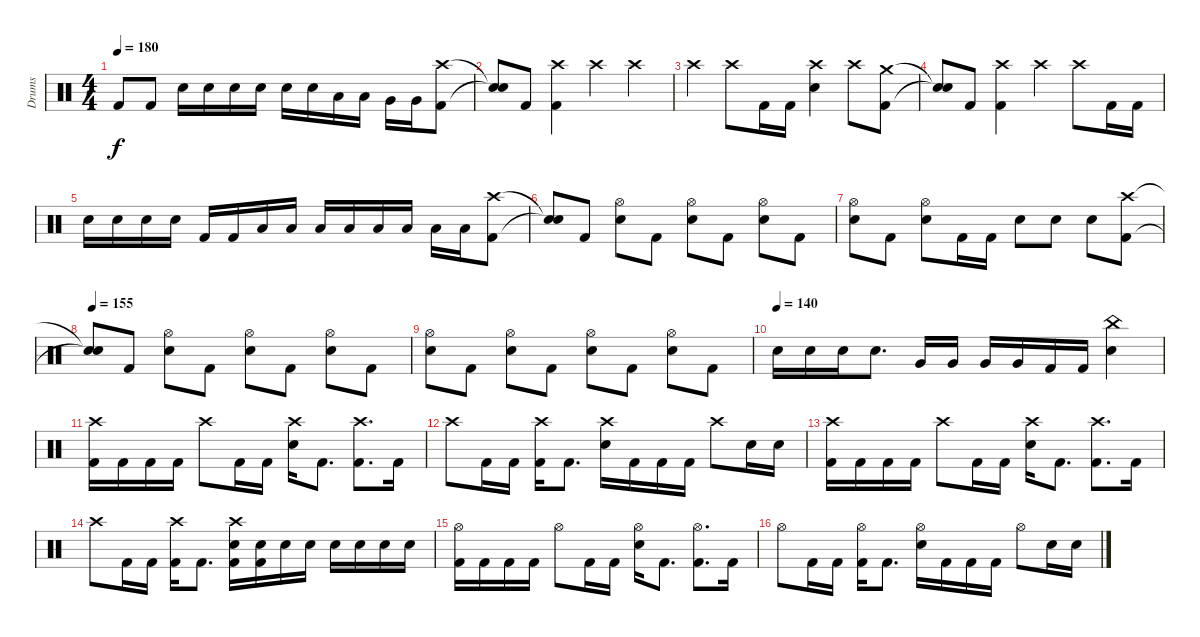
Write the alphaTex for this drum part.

\track ("Drums" "Drums") {instrument percussion}
\staff {score}
\articulation defaults
\ts (4 4)
\tempo 180
\clef neutral
\ks c "Kick (hit) 2".8{dy f} "Kick (hit) 2".8 "Electric Snare (hit)".16 "Electric Snare (hit)".16 "Electric Snare (hit)".16 "Electric Snare (hit)".16 "Electric Snare (hit)".16 "Electric Snare (hit)".16 "Low Tom (hit)".16 "Low Tom (hit)".16 "Very Low Tom (hit)".16 "Very Low Tom (hit)".16
("Crash high (hit)" "Kick (hit) 2").8 |
("Snare (hit)"{t} "Snare (hit)"{t}).8 "Kick (hit) 2".8 ("Crash high (hit)" "Kick (hit) 2").4 "Crash high (hit)".4 "Crash high (hit)".4 |
"Crash high (hit)".4 "Crash high (hit)".8 "Kick (hit) 2".16 "Kick (hit) 2".16 ("Crash high (hit)" "Electric Snare (hit)").4 "Crash high (hit)".8 ("Crash medium (hit)" "Kick (hit) 2").8 |
("Snare (hit)"{t} "Snare (hit)"{t}).8 "Kick (hit) 2".8 ("Crash high (hit)" "Kick (hit) 2").4 "Crash high (hit)".4 "Crash high (hit)".8 "Kick (hit) 2".16 "Kick (hit) 2".16 |
"Electric Snare (hit)".16 "Electric Snare (hit)".16 "Electric Snare (hit)".16 "Electric Snare (hit)".16 "Kick (hit) 2".16 "Kick (hit) 2".16 "Low Tom (hit)".16 "Low Tom (hit)".16 "Low Tom (hit)".16 "Low Tom (hit)".16 "Low Tom (hit)".16 "Low Tom (hit)".16 "Low Tom (hit)".16 "Low Tom (hit)".16 ("Crash high (hit)" "Kick (hit) 2").8 |
("Snare (hit)"{t} "Snare (hit)"{t}).8 "Kick (hit) 2".8 ("Hi-Hat (open)" "Electric Snare (hit)").8 "Kick (hit) 2".8 ("Hi-Hat (open)" "Electric Snare (hit)").8 "Kick (hit) 2".8 ("Hi-Hat (open)" "Electric Snare (hit)").8 "Kick (hit) 2".8 |
("Hi-Hat (open)" "Electric Snare (hit)").8 "Kick (hit) 2".8 ("Hi-Hat (open)" "Electric Snare (hit)").8 "Kick (hit) 2".16 "Kick (hit) 2".16 "Electric Snare (hit)".8 "Electric Snare (hit)".8 "Electric Snare (hit)".8 ("Crash high (hit)" "Kick (hit) 2").8 |
\tempo 155
("Snare (hit)"{t} "Snare (hit)"{t}).8 "Kick (hit) 2".8 ("Hi-Hat (open)" "Electric Snare (hit)").8 "Kick (hit) 2".8 ("Hi-Hat (open)" "Electric Snare (hit)").8 "Kick (hit) 2".8 ("Hi-Hat (open)" "Electric Snare (hit)").8 "Kick (hit) 2".8 |
("Hi-Hat (open)" "Electric Snare (hit)").8 "Kick (hit) 2".8 ("Hi-Hat (open)" "Electric Snare (hit)").8 "Kick (hit) 2".8 ("Hi-Hat (open)" "Electric Snare (hit)").8 "Kick (hit) 2".8 ("Hi-Hat (open)" "Electric Snare (hit)").8 "Kick (hit) 2".8 |
\tempo (140)
"Electric Snare (hit)".16 "Electric Snare (hit)".16 "Electric Snare (hit)".16 "Electric Snare (hit)".8{d} "Very Low Tom (hit)".16 "Very Low Tom (hit)".16 "Very Low Tom (hit)".16 "Very Low Tom (hit)".16 "Kick (hit) 2".16 "Kick (hit) 2".16 ("China (hit)" "Electric Snare (hit)").4 |
("Crash high (hit)" "Kick (hit) 2").16 "Kick (hit) 2".16 "Kick (hit) 2".16 "Kick (hit) 2".16 "Crash high (hit)".8 "Kick (hit) 2".16 "Kick (hit) 2".16 ("Crash high (hit)" "Electric Snare (hit)").16 "Kick (hit) 2".8{d} ("Crash high (hit)" "Kick (hit) 2").8{d} "Kick (hit) 2".16 |
"Crash high (hit)".8 "Kick (hit) 2".16 "Kick (hit) 2".16 ("Crash high (hit)" "Kick (hit) 2").16 "Kick (hit) 2".8{d} ("Crash high (hit)" "Electric Snare (hit)").16 "Kick (hit) 2".16 "Kick (hit) 2".16 "Kick (hit) 2".16 "Crash high (hit)".8 "Electric Snare (hit)".16 "Electric Snare (hit)".16 |
("Crash high (hit)" "Kick (hit) 2").16 "Kick (hit) 2".16 "Kick (hit) 2".16 "Kick (hit) 2".16 "Crash high (hit)".8 "Kick (hit) 2".16 "Kick (hit) 2".16 ("Crash high (hit)" "Electric Snare (hit)").16 "Kick (hit) 2".8{d} ("Crash high (hit)" "Kick (hit) 2").8{d} "Kick (hit) 2".16 |
"Crash high (hit)".8 "Kick (hit) 2".16 "Kick (hit) 2".16 ("Crash high (hit)" "Kick (hit) 2").16 "Kick (hit) 2".8{d} ("Crash high (hit)" "Electric Snare (hit)" "Kick (hit) 2").16 ("Electric Snare (hit)" "Kick (hit) 2").16 "Electric Snare (hit)".16 "Electric Snare (hit)".16 "Electric Snare (hit)".16 "Electric Snare (hit)".16 "Electric Snare (hit)".16 "Electric Snare (hit)".16 |
("Hi-Hat (open)" "Kick (hit) 2").16 "Kick (hit) 2".16 "Kick (hit) 2".16 "Kick (hit) 2".16 "Hi-Hat (open)".8 "Kick (hit) 2".16 "Kick (hit) 2".16 ("Hi-Hat (open)" "Electric Snare (hit)").16 "Kick (hit) 2".8{d} ("Hi-Hat (open)" "Kick (hit) 2").8{d} "Kick (hit) 2".16 |
"Hi-Hat (open)".8 "Kick (hit) 2".16 "Kick (hit) 2".16 ("Hi-Hat (open)" "Kick (hit) 2").16 "Kick (hit) 2".8{d} ("Hi-Hat (open)" "Electric Snare (hit)").16 "Kick (hit) 2".16 "Kick (hit) 2".16 "Kick (hit) 2".16 "Hi-Hat (open)".8 "Electric Snare (hit)".16 "Electric Snare (hit)".16
